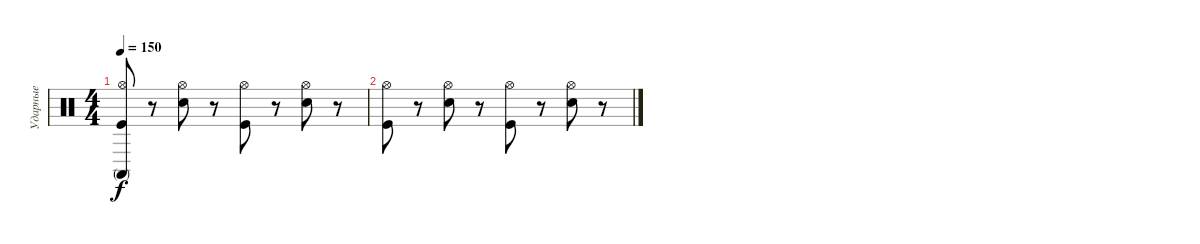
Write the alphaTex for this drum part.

\track ("Ударные" "Ударные") {instrument percussion}
\staff {score}
\articulation defaults
\ts (4 4)
\tempo 150
\clef neutral
\ks c
("Hi-Hat (open)" "Kick (hit)" "Conga high (mute)").8{dy f} r.8 ("Hi-Hat (open)" "Snare (hit) 2").8 r.8 ("Hi-Hat (open)" "Kick (hit)").8 r.8 ("Hi-Hat (open)" "Snare (hit) 2").8 r.8 |
("Hi-Hat (open)" "Kick (hit)").8 r.8 ("Hi-Hat (open)" "Snare (hit) 2").8 r.8 ("Hi-Hat (open)" "Kick (hit)").8 r.8 ("Hi-Hat (open)" "Snare (hit) 2").8 r.8
